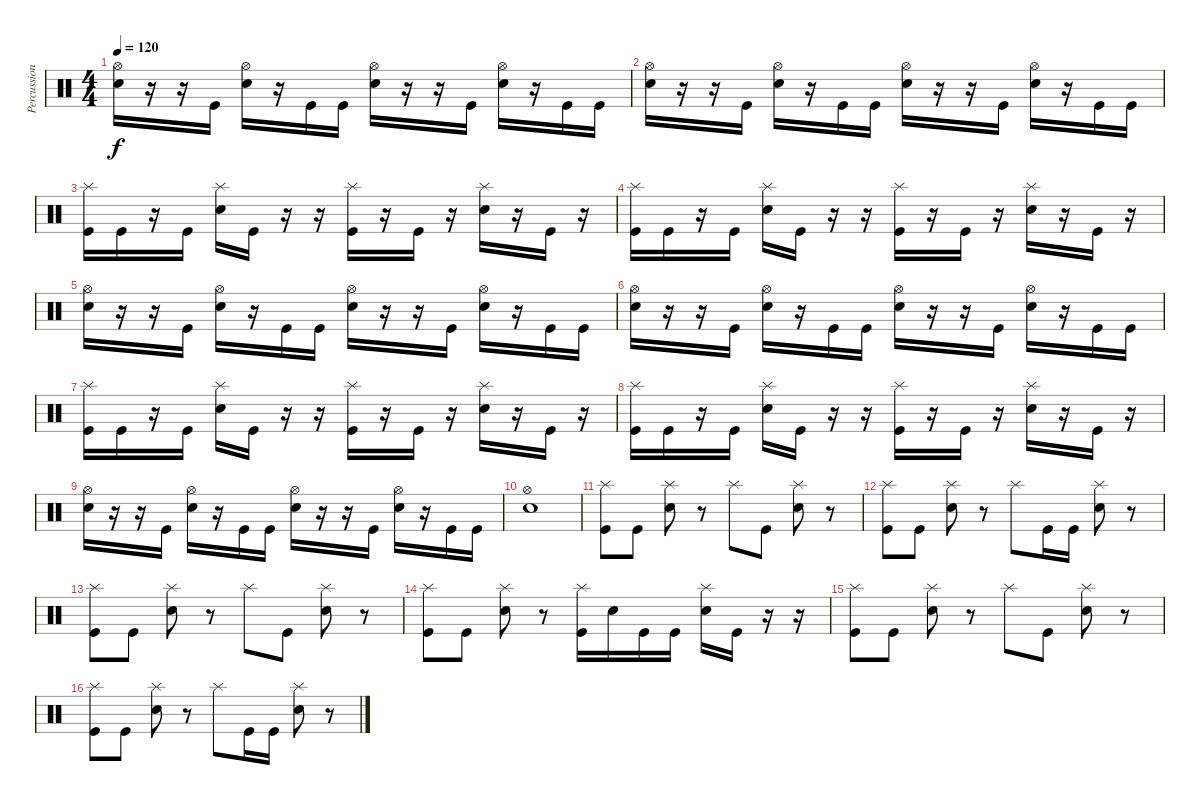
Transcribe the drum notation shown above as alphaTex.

\track ("Percussion" "Percussion") {instrument percussion}
\staff {score}
\articulation defaults
\ts (4 4)
\tempo 120
\clef neutral
\ks c
("Hi-Hat (open)" "Electric Snare (hit)").16{dy f} r.16 r.16 "Kick (hit)".16 ("Hi-Hat (open)" "Electric Snare (hit)").16 r.16 "Kick (hit)".16 "Kick (hit)".16 ("Hi-Hat (open)" "Electric Snare (hit)").16 r.16 r.16 "Kick (hit)".16 ("Hi-Hat (open)" "Electric Snare (hit)").16 r.16 "Kick (hit)".16 "Kick (hit)".16 |
("Hi-Hat (open)" "Electric Snare (hit)").16 r.16 r.16 "Kick (hit)".16 ("Hi-Hat (open)" "Electric Snare (hit)").16 r.16 "Kick (hit)".16 "Kick (hit)".16 ("Hi-Hat (open)" "Electric Snare (hit)").16 r.16 r.16 "Kick (hit)".16 ("Hi-Hat (open)" "Electric Snare (hit)").16 r.16 "Kick (hit)".16 "Kick (hit)".16 |
("Splash (hit)" "Kick (hit)").16 "Kick (hit)".16 r.16 "Kick (hit)".16 ("Splash (hit)" "Electric Snare (hit)").16 "Kick (hit)".16 r.16 r.16 ("Splash (hit)" "Kick (hit)").16 r.16 "Kick (hit)".16 r.16 ("Splash (hit)" "Electric Snare (hit)").16 r.16 "Kick (hit)".16 r.16 |
("Splash (hit)" "Kick (hit)").16 "Kick (hit)".16 r.16 "Kick (hit)".16 ("Splash (hit)" "Electric Snare (hit)").16 "Kick (hit)".16 r.16 r.16 ("Splash (hit)" "Kick (hit)").16 r.16 "Kick (hit)".16 r.16 ("Splash (hit)" "Electric Snare (hit)").16 r.16 "Kick (hit)".16 r.16 |
("Hi-Hat (open)" "Electric Snare (hit)").16 r.16 r.16 "Kick (hit)".16 ("Hi-Hat (open)" "Electric Snare (hit)").16 r.16 "Kick (hit)".16 "Kick (hit)".16 ("Hi-Hat (open)" "Electric Snare (hit)").16 r.16 r.16 "Kick (hit)".16 ("Hi-Hat (open)" "Electric Snare (hit)").16 r.16 "Kick (hit)".16 "Kick (hit)".16 |
("Hi-Hat (open)" "Electric Snare (hit)").16 r.16 r.16 "Kick (hit)".16 ("Hi-Hat (open)" "Electric Snare (hit)").16 r.16 "Kick (hit)".16 "Kick (hit)".16 ("Hi-Hat (open)" "Electric Snare (hit)").16 r.16 r.16 "Kick (hit)".16 ("Hi-Hat (open)" "Electric Snare (hit)").16 r.16 "Kick (hit)".16 "Kick (hit)".16 |
("Splash (hit)" "Kick (hit)").16 "Kick (hit)".16 r.16 "Kick (hit)".16 ("Splash (hit)" "Electric Snare (hit)").16 "Kick (hit)".16 r.16 r.16 ("Splash (hit)" "Kick (hit)").16 r.16 "Kick (hit)".16 r.16 ("Splash (hit)" "Electric Snare (hit)").16 r.16 "Kick (hit)".16 r.16 |
("Splash (hit)" "Kick (hit)").16 "Kick (hit)".16 r.16 "Kick (hit)".16 ("Splash (hit)" "Electric Snare (hit)").16 "Kick (hit)".16 r.16 r.16 ("Splash (hit)" "Kick (hit)").16 r.16 "Kick (hit)".16 r.16 ("Splash (hit)" "Electric Snare (hit)").16 r.16 "Kick (hit)".16 r.16 |
("Hi-Hat (open)" "Electric Snare (hit)").16 r.16 r.16 "Kick (hit)".16 ("Hi-Hat (open)" "Electric Snare (hit)").16 r.16 "Kick (hit)".16 "Kick (hit)".16 ("Hi-Hat (open)" "Electric Snare (hit)").16 r.16 r.16 "Kick (hit)".16 ("Hi-Hat (open)" "Electric Snare (hit)").16 r.16 "Kick (hit)".16 "Kick (hit)".16 |
("Hi-Hat (open)" "Electric Snare (hit)").1 |
("Splash (hit)" "Kick (hit)").8{volume 16} "Kick (hit)".8 ("Splash (hit)" "Electric Snare (hit)").8 r.8 "Splash (hit)".8 "Kick (hit)".8 ("Splash (hit)" "Electric Snare (hit)").8 r.8 |
("Splash (hit)" "Kick (hit)").8 "Kick (hit)".8 ("Splash (hit)" "Electric Snare (hit)").8 r.8 "Splash (hit)".8 "Kick (hit)".16 "Kick (hit)".16 ("Splash (hit)" "Electric Snare (hit)").8 r.8 |
("Splash (hit)" "Kick (hit)").8 "Kick (hit)".8 ("Splash (hit)" "Electric Snare (hit)").8 r.8 "Splash (hit)".8 "Kick (hit)".8 ("Splash (hit)" "Electric Snare (hit)").8 r.8 |
("Splash (hit)" "Kick (hit)").8 "Kick (hit)".8 ("Splash (hit)" "Electric Snare (hit)").8 r.8 ("Splash (hit)" "Kick (hit)").16 "Electric Snare (hit)".16 "Kick (hit)".16 "Kick (hit)".16 ("Splash (hit)" "Electric Snare (hit)").16 "Kick (hit)".16 r.16 r.16 |
("Splash (hit)" "Kick (hit)").8 "Kick (hit)".8 ("Splash (hit)" "Electric Snare (hit)").8 r.8 "Splash (hit)".8 "Kick (hit)".8 ("Splash (hit)" "Electric Snare (hit)").8 r.8 |
("Splash (hit)" "Kick (hit)").8 "Kick (hit)".8 ("Splash (hit)" "Electric Snare (hit)").8 r.8 "Splash (hit)".8 "Kick (hit)".16 "Kick (hit)".16 ("Splash (hit)" "Electric Snare (hit)").8 r.8
